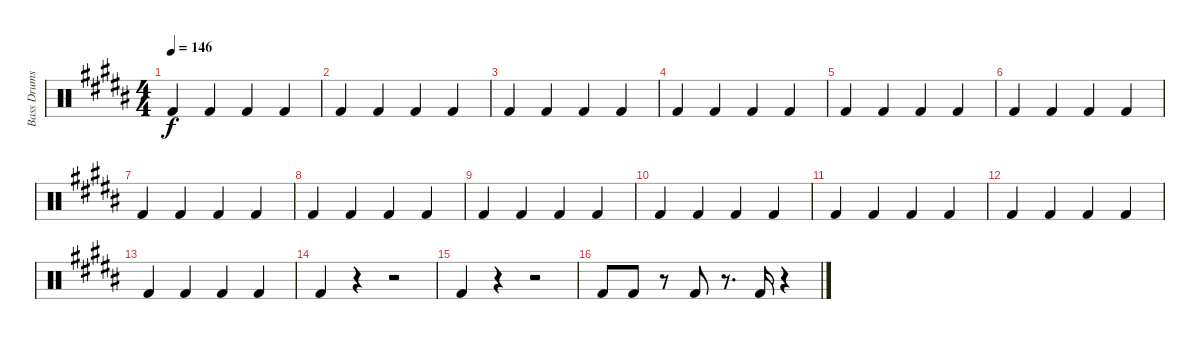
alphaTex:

\track ("Bass Drums" "Bass Drums") {instrument percussion}
\staff {score}
\articulation defaults
\ts (4 4)
\tempo 146
\clef neutral
\ks b "Kick (hit) 2".4{dy f} "Kick (hit) 2".4 "Kick (hit) 2".4 "Kick (hit) 2".4
|
"Kick (hit) 2".4 "Kick (hit) 2".4 "Kick (hit) 2".4 "Kick (hit) 2".4 |
"Kick (hit) 2".4 "Kick (hit) 2".4 "Kick (hit) 2".4 "Kick (hit) 2".4 |
"Kick (hit) 2".4 "Kick (hit) 2".4 "Kick (hit) 2".4 "Kick (hit) 2".4 |
"Kick (hit) 2".4 "Kick (hit) 2".4 "Kick (hit) 2".4 "Kick (hit) 2".4 |
"Kick (hit) 2".4 "Kick (hit) 2".4 "Kick (hit) 2".4 "Kick (hit) 2".4 |
"Kick (hit) 2".4 "Kick (hit) 2".4 "Kick (hit) 2".4 "Kick (hit) 2".4 |
"Kick (hit) 2".4 "Kick (hit) 2".4 "Kick (hit) 2".4 "Kick (hit) 2".4 |
"Kick (hit) 2".4 "Kick (hit) 2".4 "Kick (hit) 2".4 "Kick (hit) 2".4 |
"Kick (hit) 2".4 "Kick (hit) 2".4 "Kick (hit) 2".4 "Kick (hit) 2".4 |
"Kick (hit) 2".4 "Kick (hit) 2".4 "Kick (hit) 2".4 "Kick (hit) 2".4 |
"Kick (hit) 2".4 "Kick (hit) 2".4 "Kick (hit) 2".4 "Kick (hit) 2".4 |
"Kick (hit) 2".4 "Kick (hit) 2".4 "Kick (hit) 2".4 "Kick (hit) 2".4 |
"Kick (hit) 2".4 r.4 r.2 |
"Kick (hit) 2".4 r.4 r.2 |
"Kick (hit) 2".8 "Kick (hit) 2".8 r.8 "Kick (hit) 2".8 r.8{d} "Kick (hit) 2".16 r.4
